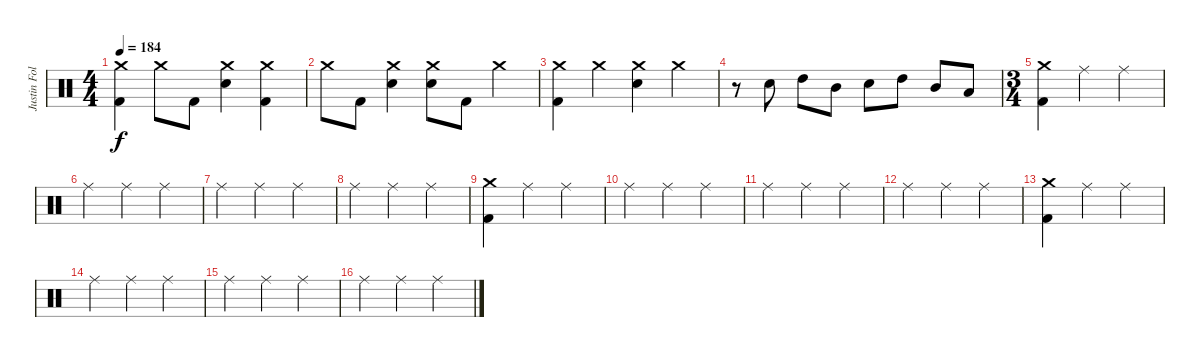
\track ("Justin Foley" "Justin Fol") {instrument percussion}
\staff {score}
\articulation defaults
\ts (4 4)
\tempo 184
\clef neutral
\ks c
("Crash medium (hit)" "Kick (hit) 2").4{dy f} "Crash medium (hit)".8 "Kick (hit) 2".8 ("Crash medium (hit)" "Electric Snare (hit)").4 ("Crash medium (hit)" "Kick (hit) 2").4 |
"Crash medium (hit)".8 "Kick (hit) 2".8 ("Crash medium (hit)" "Electric Snare (hit)").4 ("Crash medium (hit)" "Electric Snare (hit)").8 "Kick (hit) 2".8 "Crash medium (hit)".4 |
("Crash medium (hit)" "Kick (hit) 2").4 "Crash medium (hit)".4 ("Crash medium (hit)" "Electric Snare (hit)").4 "Crash medium (hit)".4 |
r.8 "Electric Snare (hit)".8 "High Tom (hit)".8 "Mid Tom (hit)".8 "Electric Snare (hit)".8 "High Tom (hit)".8 "Mid Tom (hit)".8 "Low Tom (hit)".8 |
\ts (3 4)
("Crash medium (hit)" "Kick (hit) 2").4 "Ride (middle)".4 "Ride (middle)".4 |
"Ride (middle)".4 "Ride (middle)".4 "Ride (middle)".4 |
"Ride (middle)".4 "Ride (middle)".4 "Ride (middle)".4 |
"Ride (middle)".4 "Ride (middle)".4 "Ride (middle)".4 |
("Crash medium (hit)" "Kick (hit) 2").4 "Ride (middle)".4 "Ride (middle)".4 |
"Ride (middle)".4 "Ride (middle)".4 "Ride (middle)".4 |
"Ride (middle)".4 "Ride (middle)".4 "Ride (middle)".4 |
"Ride (middle)".4 "Ride (middle)".4 "Ride (middle)".4 |
("Crash medium (hit)" "Kick (hit) 2").4 "Ride (middle)".4 "Ride (middle)".4 |
"Ride (middle)".4 "Ride (middle)".4 "Ride (middle)".4 |
"Ride (middle)".4 "Ride (middle)".4 "Ride (middle)".4 |
"Ride (middle)".4 "Ride (middle)".4 "Ride (middle)".4
